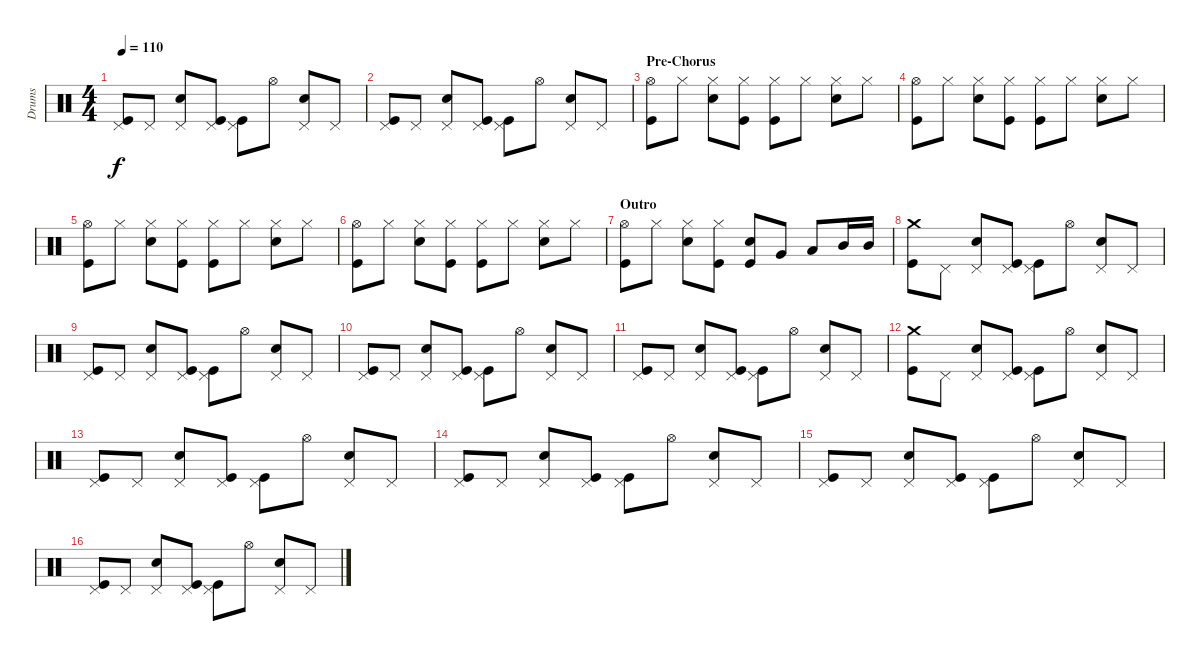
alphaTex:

\track ("Drums" "Drums") {instrument percussion}
\staff {score}
\articulation defaults
\ts (4 4)
\tempo 110
\clef neutral
\ks c
("Pedal Hi-Hat (hit)" "Kick (hit)").8{dy f} "Pedal Hi-Hat (hit)".8 ("Pedal Hi-Hat (hit)" "Snare (hit) 2").8 ("Pedal Hi-Hat (hit)" "Kick (hit)").8 ("Pedal Hi-Hat (hit)" "Kick (hit)").8 "Hi-Hat (open)".8 ("Pedal Hi-Hat (hit)" "Snare (hit) 2").8 "Pedal Hi-Hat (hit)".8 |
("Pedal Hi-Hat (hit)" "Kick (hit)").8 "Pedal Hi-Hat (hit)".8 ("Pedal Hi-Hat (hit)" "Snare (hit) 2").8 ("Pedal Hi-Hat (hit)" "Kick (hit)").8 ("Pedal Hi-Hat (hit)" "Kick (hit)").8 "Hi-Hat (open)".8 ("Pedal Hi-Hat (hit)" "Snare (hit) 2").8 "Pedal Hi-Hat (hit)".8 |
\section ("" "Pre-Chorus")
("Hi-Hat (open)" "Kick (hit)").8 "Hi-Hat (closed)".8 ("Hi-Hat (closed)" "Snare (hit) 2").8 ("Hi-Hat (closed)" "Kick (hit)").8 ("Hi-Hat (closed)" "Kick (hit)").8 "Hi-Hat (closed)".8 ("Hi-Hat (closed)" "Snare (hit) 2").8 "Hi-Hat (closed)".8 |
("Hi-Hat (open)" "Kick (hit)").8 "Hi-Hat (closed)".8 ("Hi-Hat (closed)" "Snare (hit) 2").8 ("Hi-Hat (closed)" "Kick (hit)").8 ("Hi-Hat (closed)" "Kick (hit)").8 "Hi-Hat (closed)".8 ("Hi-Hat (closed)" "Snare (hit) 2").8 "Hi-Hat (closed)".8 |
("Hi-Hat (open)" "Kick (hit)").8 "Hi-Hat (closed)".8 ("Hi-Hat (closed)" "Snare (hit) 2").8 ("Hi-Hat (closed)" "Kick (hit)").8 ("Hi-Hat (closed)" "Kick (hit)").8 "Hi-Hat (closed)".8 ("Hi-Hat (closed)" "Snare (hit) 2").8 "Hi-Hat (closed)".8 |
("Hi-Hat (open)" "Kick (hit)").8 "Hi-Hat (closed)".8 ("Hi-Hat (closed)" "Snare (hit) 2").8 ("Hi-Hat (closed)" "Kick (hit)").8 ("Hi-Hat (closed)" "Kick (hit)").8 "Hi-Hat (closed)".8 ("Hi-Hat (closed)" "Snare (hit) 2").8 "Hi-Hat (closed)".8 |
\section ("" "Outro")
("Hi-Hat (open)" "Kick (hit)").8 "Hi-Hat (closed)".8 ("Hi-Hat (closed)" "Snare (hit) 2").8 ("Hi-Hat (closed)" "Kick (hit)").8 ("Snare (hit) 2" "Kick (hit)").8 "Very Low Tom (hit)".8 "Low Tom (hit)".8 "Mid Tom (hit)".16 "Mid Tom (hit)".16 |
("Crash medium (hit)" "Kick (hit)").8 "Pedal Hi-Hat (hit)".8 ("Pedal Hi-Hat (hit)" "Snare (hit) 2").8 ("Pedal Hi-Hat (hit)" "Kick (hit)").8 ("Pedal Hi-Hat (hit)" "Kick (hit)").8 "Hi-Hat (open)".8 ("Pedal Hi-Hat (hit)" "Snare (hit) 2").8 "Pedal Hi-Hat (hit)".8 |
("Pedal Hi-Hat (hit)" "Kick (hit)").8 "Pedal Hi-Hat (hit)".8 ("Pedal Hi-Hat (hit)" "Snare (hit) 2").8 ("Pedal Hi-Hat (hit)" "Kick (hit)").8 ("Pedal Hi-Hat (hit)" "Kick (hit)").8 "Hi-Hat (open)".8 ("Pedal Hi-Hat (hit)" "Snare (hit) 2").8 "Pedal Hi-Hat (hit)".8 |
("Pedal Hi-Hat (hit)" "Kick (hit)").8 "Pedal Hi-Hat (hit)".8 ("Pedal Hi-Hat (hit)" "Snare (hit) 2").8 ("Pedal Hi-Hat (hit)" "Kick (hit)").8 ("Pedal Hi-Hat (hit)" "Kick (hit)").8 "Hi-Hat (open)".8 ("Pedal Hi-Hat (hit)" "Snare (hit) 2").8 "Pedal Hi-Hat (hit)".8 |
("Pedal Hi-Hat (hit)" "Kick (hit)").8 "Pedal Hi-Hat (hit)".8 ("Pedal Hi-Hat (hit)" "Snare (hit) 2").8 ("Pedal Hi-Hat (hit)" "Kick (hit)").8 ("Pedal Hi-Hat (hit)" "Kick (hit)").8 "Hi-Hat (open)".8 ("Pedal Hi-Hat (hit)" "Snare (hit) 2").8 "Pedal Hi-Hat (hit)".8 |
("Crash medium (hit)" "Kick (hit)").8 "Pedal Hi-Hat (hit)".8 ("Pedal Hi-Hat (hit)" "Snare (hit) 2").8 ("Pedal Hi-Hat (hit)" "Kick (hit)").8 ("Pedal Hi-Hat (hit)" "Kick (hit)").8 "Hi-Hat (open)".8 ("Pedal Hi-Hat (hit)" "Snare (hit) 2").8 "Pedal Hi-Hat (hit)".8 |
("Pedal Hi-Hat (hit)" "Kick (hit)").8 "Pedal Hi-Hat (hit)".8 ("Pedal Hi-Hat (hit)" "Snare (hit) 2").8 ("Pedal Hi-Hat (hit)" "Kick (hit)").8 ("Pedal Hi-Hat (hit)" "Kick (hit)").8 "Hi-Hat (open)".8 ("Pedal Hi-Hat (hit)" "Snare (hit) 2").8 "Pedal Hi-Hat (hit)".8 |
("Pedal Hi-Hat (hit)" "Kick (hit)").8 "Pedal Hi-Hat (hit)".8 ("Pedal Hi-Hat (hit)" "Snare (hit) 2").8 ("Pedal Hi-Hat (hit)" "Kick (hit)").8 ("Pedal Hi-Hat (hit)" "Kick (hit)").8 "Hi-Hat (open)".8 ("Pedal Hi-Hat (hit)" "Snare (hit) 2").8 "Pedal Hi-Hat (hit)".8 |
("Pedal Hi-Hat (hit)" "Kick (hit)").8 "Pedal Hi-Hat (hit)".8 ("Pedal Hi-Hat (hit)" "Snare (hit) 2").8 ("Pedal Hi-Hat (hit)" "Kick (hit)").8 ("Pedal Hi-Hat (hit)" "Kick (hit)").8 "Hi-Hat (open)".8 ("Pedal Hi-Hat (hit)" "Snare (hit) 2").8 "Pedal Hi-Hat (hit)".8 |
("Pedal Hi-Hat (hit)" "Kick (hit)").8 "Pedal Hi-Hat (hit)".8 ("Pedal Hi-Hat (hit)" "Snare (hit) 2").8 ("Pedal Hi-Hat (hit)" "Kick (hit)").8 ("Pedal Hi-Hat (hit)" "Kick (hit)").8 "Hi-Hat (open)".8 ("Pedal Hi-Hat (hit)" "Snare (hit) 2").8 "Pedal Hi-Hat (hit)".8
